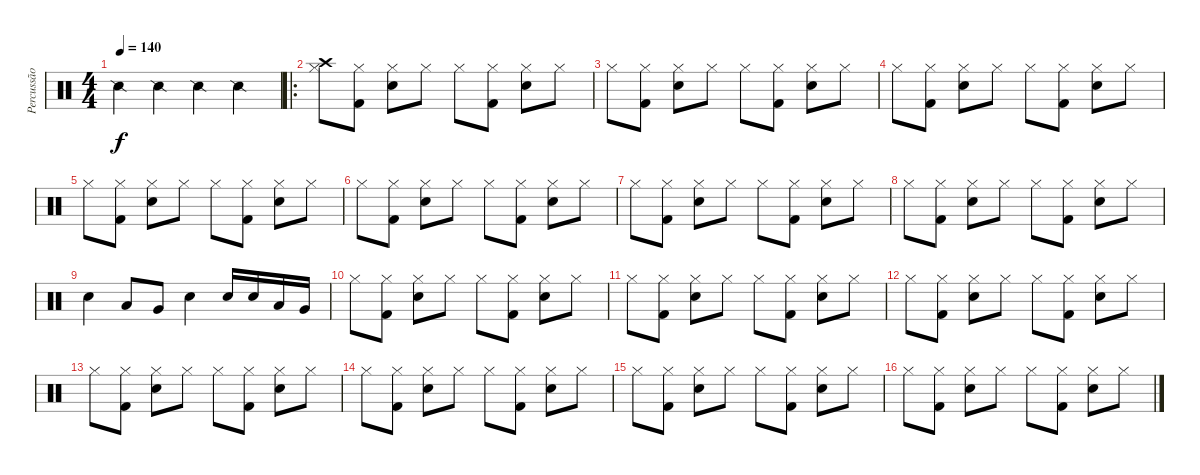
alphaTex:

\track ("Percussão" "Percussão") {instrument percussion}
\staff {score}
\articulation defaults
\ts (4 4)
\tempo 140
\clef neutral
\ks c "Snare (side stick) 2".4{dy f} "Snare (side stick) 2".4 "Snare (side stick) 2".4 "Snare (side stick) 2".4
|
\ro
("Crash high (hit)" "Hi-Hat (closed)").8 ("Kick (hit) 2" "Hi-Hat (closed)").8 ("Snare (hit) 2" "Hi-Hat (closed)").8 "Hi-Hat (closed)".8 "Hi-Hat (closed)".8 ("Kick (hit) 2" "Hi-Hat (closed)").8 ("Hi-Hat (closed)" "Snare (hit) 2").8 "Hi-Hat (closed)".8 |
"Hi-Hat (closed)".8 ("Kick (hit) 2" "Hi-Hat (closed)").8 ("Snare (hit) 2" "Hi-Hat (closed)").8 "Hi-Hat (closed)".8 "Hi-Hat (closed)".8 ("Kick (hit) 2" "Hi-Hat (closed)").8 ("Hi-Hat (closed)" "Snare (hit) 2").8 "Hi-Hat (closed)".8 |
"Hi-Hat (closed)".8 ("Kick (hit) 2" "Hi-Hat (closed)").8 ("Snare (hit) 2" "Hi-Hat (closed)").8 "Hi-Hat (closed)".8 "Hi-Hat (closed)".8 ("Kick (hit) 2" "Hi-Hat (closed)").8 ("Hi-Hat (closed)" "Snare (hit) 2").8 "Hi-Hat (closed)".8 |
"Hi-Hat (closed)".8 ("Kick (hit) 2" "Hi-Hat (closed)").8 ("Snare (hit) 2" "Hi-Hat (closed)").8 "Hi-Hat (closed)".8 "Hi-Hat (closed)".8 ("Kick (hit) 2" "Hi-Hat (closed)").8 ("Hi-Hat (closed)" "Snare (hit) 2").8 "Hi-Hat (closed)".8 |
"Hi-Hat (closed)".8 ("Kick (hit) 2" "Hi-Hat (closed)").8 ("Snare (hit) 2" "Hi-Hat (closed)").8 "Hi-Hat (closed)".8 "Hi-Hat (closed)".8 ("Kick (hit) 2" "Hi-Hat (closed)").8 ("Hi-Hat (closed)" "Snare (hit) 2").8 "Hi-Hat (closed)".8 |
"Hi-Hat (closed)".8 ("Kick (hit) 2" "Hi-Hat (closed)").8 ("Snare (hit) 2" "Hi-Hat (closed)").8 "Hi-Hat (closed)".8 "Hi-Hat (closed)".8 ("Kick (hit) 2" "Hi-Hat (closed)").8 ("Hi-Hat (closed)" "Snare (hit) 2").8 "Hi-Hat (closed)".8 |
"Hi-Hat (closed)".8 ("Kick (hit) 2" "Hi-Hat (closed)").8 ("Snare (hit) 2" "Hi-Hat (closed)").8 "Hi-Hat (closed)".8 "Hi-Hat (closed)".8 ("Kick (hit) 2" "Hi-Hat (closed)").8 ("Hi-Hat (closed)" "Snare (hit) 2").8 "Hi-Hat (closed)".8 |
"Snare (hit) 2".4 "Low Tom (hit)".8 "Very Low Tom (hit)".8 "Snare (hit) 2".4 "Snare (hit) 2".16 "Snare (hit) 2".16 "Low Tom (hit)".16 "Very Low Tom (hit)".16 |
"Hi-Hat (closed)".8 ("Kick (hit) 2" "Hi-Hat (closed)").8 ("Snare (hit) 2" "Hi-Hat (closed)").8 "Hi-Hat (closed)".8 "Hi-Hat (closed)".8 ("Kick (hit) 2" "Hi-Hat (closed)").8 ("Hi-Hat (closed)" "Snare (hit) 2").8 "Hi-Hat (closed)".8 |
"Hi-Hat (closed)".8 ("Kick (hit) 2" "Hi-Hat (closed)").8 ("Snare (hit) 2" "Hi-Hat (closed)").8 "Hi-Hat (closed)".8 "Hi-Hat (closed)".8 ("Kick (hit) 2" "Hi-Hat (closed)").8 ("Hi-Hat (closed)" "Snare (hit) 2").8 "Hi-Hat (closed)".8 |
"Hi-Hat (closed)".8 ("Kick (hit) 2" "Hi-Hat (closed)").8 ("Snare (hit) 2" "Hi-Hat (closed)").8 "Hi-Hat (closed)".8 "Hi-Hat (closed)".8 ("Kick (hit) 2" "Hi-Hat (closed)").8 ("Hi-Hat (closed)" "Snare (hit) 2").8 "Hi-Hat (closed)".8 |
"Hi-Hat (closed)".8 ("Kick (hit) 2" "Hi-Hat (closed)").8 ("Snare (hit) 2" "Hi-Hat (closed)").8 "Hi-Hat (closed)".8 "Hi-Hat (closed)".8 ("Kick (hit) 2" "Hi-Hat (closed)").8 ("Hi-Hat (closed)" "Snare (hit) 2").8 "Hi-Hat (closed)".8 |
"Hi-Hat (closed)".8 ("Kick (hit) 2" "Hi-Hat (closed)").8 ("Snare (hit) 2" "Hi-Hat (closed)").8 "Hi-Hat (closed)".8 "Hi-Hat (closed)".8 ("Kick (hit) 2" "Hi-Hat (closed)").8 ("Hi-Hat (closed)" "Snare (hit) 2").8 "Hi-Hat (closed)".8 |
"Hi-Hat (closed)".8 ("Kick (hit) 2" "Hi-Hat (closed)").8 ("Snare (hit) 2" "Hi-Hat (closed)").8 "Hi-Hat (closed)".8 "Hi-Hat (closed)".8 ("Kick (hit) 2" "Hi-Hat (closed)").8 ("Hi-Hat (closed)" "Snare (hit) 2").8 "Hi-Hat (closed)".8 |
"Hi-Hat (closed)".8 ("Kick (hit) 2" "Hi-Hat (closed)").8 ("Snare (hit) 2" "Hi-Hat (closed)").8 "Hi-Hat (closed)".8 "Hi-Hat (closed)".8 ("Kick (hit) 2" "Hi-Hat (closed)").8 ("Hi-Hat (closed)" "Snare (hit) 2").8 "Hi-Hat (closed)".8
